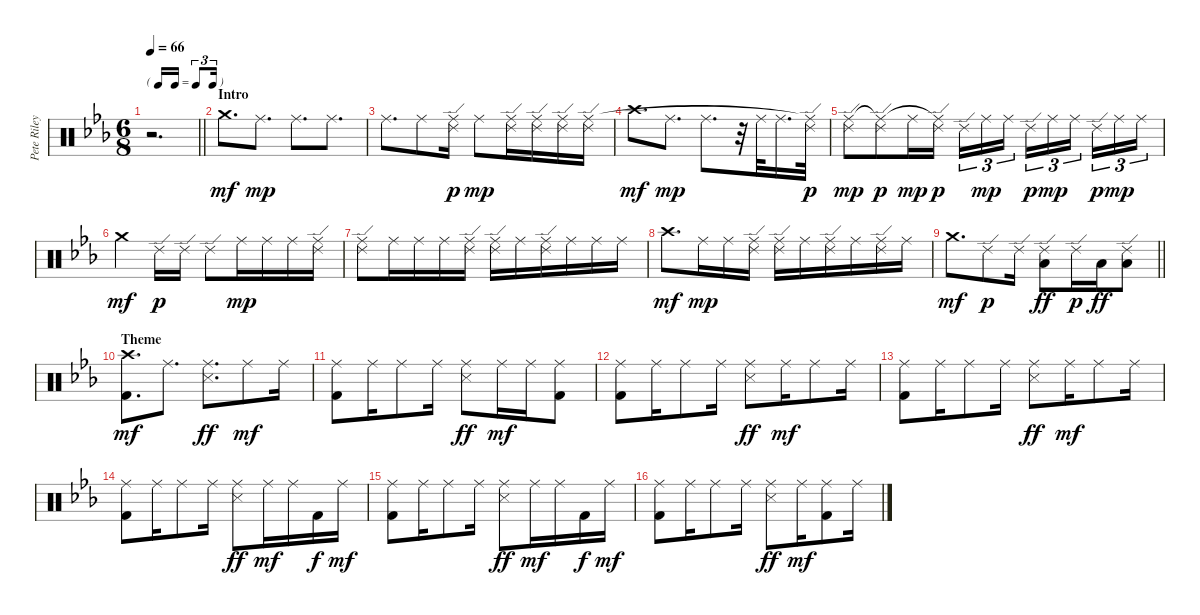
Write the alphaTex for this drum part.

\track ("Pete Riley, Drums" "Pete Riley") {instrument percussion}
\staff {score}
\articulation defaults
\ts (6 8)
\tf triplet16th
\tempo 66
\clef neutral
\barLineRight lightlight
\ks cminor
r.2{d dy mf} |
\section ("" "Intro")
"Crash medium (hit)".8{d} "Ride (middle)".8{d dy mp} "Ride (middle)".8{d} "Ride (middle)".8{d} |
"Ride (middle)".8{d} "Ride (middle)".8 ("Ride (edge) 2" "Ride (middle)").16{dy p} "Ride (middle)".8{dy mp} ("Ride (edge) 2" "Ride (middle)").16 ("Ride (edge) 2" "Ride (middle)").16 ("Ride (edge) 2" "Ride (middle)").16 ("Ride (edge) 2" "Ride (middle)").16 |
"Crash high (hit)".8{d dy mf} "Ride (middle)".8{d dy mp} "Ride (middle)".8{d} r.32 "Ride (middle)".32 "Ride (middle)".16{d} ("Ride (edge) 2" "Ride (middle)"{t}).32{dy p} |
("Ride (edge) 2" "Ride (middle)").8{dy mp} ("Ride (edge) 2" "Ride (middle)"{t}).8{dy p} "Ride (middle)".16{dy mp} ("Ride (edge) 2" "Ride (middle)"{t}).16{dy p} "Ride (edge) 2".16{tu (3 2)} "Ride (middle)".16{tu (3 2) dy mp} "Ride (middle)".16{tu (3 2) beam splitsecondary} "Ride (edge) 2".16{tu (3 2) dy p} "Ride (middle)".16{tu (3 2) dy mp} "Ride (middle)".16{tu (3 2) beam splitsecondary} "Ride (edge) 2".16{tu (3 2) dy p} "Ride (middle)".16{tu (3 2) dy mp} "Ride (middle)".16{tu (3 2)} |
"Crash medium (hit)".4{dy mf} "Ride (edge) 2".16{dy p} "Ride (edge) 2".16 "Ride (edge) 2".8 "Ride (middle)".16{dy mp} "Ride (middle)".16 "Ride (middle)".16 ("Ride (edge) 2" "Ride (middle)").16 |
("Ride (edge) 2" "Ride (middle)").8 "Ride (middle)".16 "Ride (middle)".16 "Ride (middle)".16 ("Ride (edge) 2" "Ride (middle)").16 ("Ride (edge) 2" "Ride (middle)").16 "Ride (middle)".16 ("Ride (edge) 2" "Ride (middle)").16 "Ride (middle)".16 "Ride (middle)".16 "Ride (middle)".16 |
"Crash high (hit)".8{d dy mf} "Ride (middle)".16{dy mp} "Ride (middle)".16 ("Ride (edge) 2" "Ride (middle)").16 ("Ride (edge) 2" "Ride (middle)").16 "Ride (middle)".16 ("Ride (edge) 2" "Ride (middle)").16 "Ride (middle)".16 ("Ride (edge) 2" "Ride (middle)").16 "Ride (middle)".16 |
\barLineRight lightlight "Crash medium (hit)".8{d dy mf} "Ride (edge) 2".8{dy p} "Ride (edge) 2".16
("Ride (edge) 2" "Low Tom (hit)").8{dy ff} "Ride (edge) 2".16{dy p} "Low Floor Tom (hit)".16{dy ff} ("Ride (edge) 2" "Low Floor Tom (hit)").8 |
\section ("" "Theme")
("Crash high (hit)" "Kick (hit) 2").8{d dy mf} "Ride (middle)".8{d} ("Ride (middle)" "Snare (side stick) 3").8{d dy ff} "Ride (middle)".8{dy mf} "Ride (middle)".16 |
("Ride (middle)" "Kick (hit) 2").8 "Ride (middle)".16 "Ride (middle)".8 "Ride (middle)".16 ("Ride (middle)" "Snare (side stick) 3").8{dy ff} "Ride (middle)".16{dy mf} "Ride (middle)".16 ("Ride (middle)" "Kick (hit) 2").8 |
("Ride (middle)" "Kick (hit) 2").8 "Ride (middle)".16 "Ride (middle)".8 "Ride (middle)".16 ("Ride (middle)" "Snare (side stick) 3").8{dy ff} "Ride (middle)".16{dy mf} "Ride (middle)".8 "Ride (middle)".16 |
("Ride (middle)" "Kick (hit) 2").8 "Ride (middle)".16 "Ride (middle)".8 "Ride (middle)".16 ("Ride (middle)" "Snare (side stick) 3").8{dy ff} "Ride (middle)".16{dy mf} "Ride (middle)".8 "Ride (middle)".16 |
("Ride (middle)" "Kick (hit) 2").8 "Ride (middle)".16 "Ride (middle)".8 "Ride (middle)".16 ("Ride (middle)" "Snare (side stick) 3").8{dy ff} "Ride (middle)".16{dy mf} "Ride (middle)".16 "Kick (hit) 2".16{dy f} "Ride (middle)".16{dy mf} |
("Ride (middle)" "Kick (hit) 2").8 "Ride (middle)".16 "Ride (middle)".8 "Ride (middle)".16 ("Ride (middle)" "Snare (side stick) 3").8{dy ff} "Ride (middle)".16{dy mf} "Ride (middle)".16 "Kick (hit) 2".16{dy f} "Ride (middle)".16{dy mf} |
("Ride (middle)" "Kick (hit) 2").8 "Ride (middle)".16 "Ride (middle)".8 "Ride (middle)".16 ("Ride (middle)" "Snare (side stick) 3").8{dy ff} "Ride (middle)".16{dy mf} ("Ride (middle)" "Kick (hit) 2").8 "Ride (middle)".16
